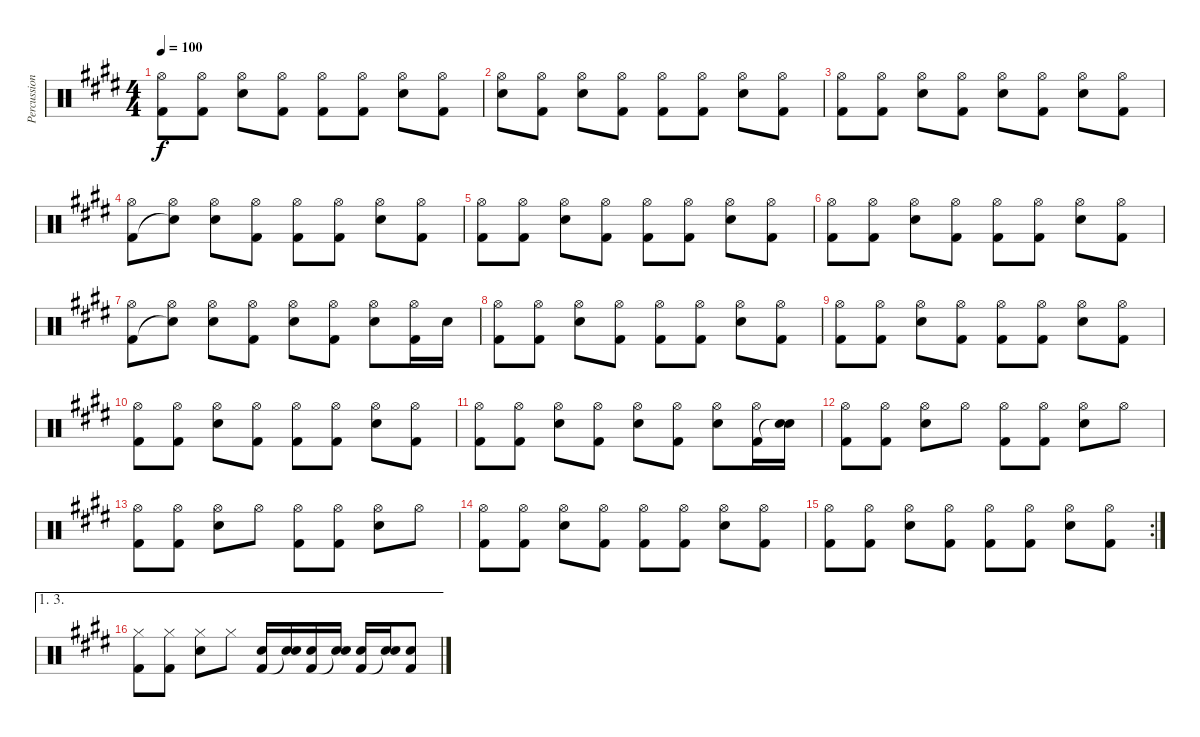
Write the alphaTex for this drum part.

\track ("Percussion" "Percussion") {instrument percussion}
\staff {score}
\articulation defaults
\ts (4 4)
\tempo 100
\clef neutral
\ks e
("Hi-Hat (open)" "Kick (hit) 2").8{dy f} ("Hi-Hat (open)" "Kick (hit) 2").8 ("Hi-Hat (open)" "Snare (hit) 2").8 ("Hi-Hat (open)" "Kick (hit) 2").8 ("Hi-Hat (open)" "Kick (hit) 2").8 ("Hi-Hat (open)" "Kick (hit) 2").8 ("Hi-Hat (open)" "Snare (hit) 2").8 ("Hi-Hat (open)" "Kick (hit) 2").8 |
("Hi-Hat (open)" "Snare (hit) 2").8 ("Hi-Hat (open)" "Kick (hit) 2").8 ("Hi-Hat (open)" "Snare (hit) 2").8 ("Hi-Hat (open)" "Kick (hit) 2").8 ("Hi-Hat (open)" "Kick (hit) 2").8 ("Hi-Hat (open)" "Kick (hit) 2").8 ("Hi-Hat (open)" "Snare (hit) 2").8 ("Hi-Hat (open)" "Kick (hit) 2").8 |
("Hi-Hat (open)" "Kick (hit) 2").8 ("Hi-Hat (open)" "Kick (hit) 2").8 ("Hi-Hat (open)" "Snare (hit) 2").8 ("Hi-Hat (open)" "Kick (hit) 2").8 ("Hi-Hat (open)" "Snare (hit) 2").8 ("Hi-Hat (open)" "Kick (hit) 2").8 ("Hi-Hat (open)" "Snare (hit) 2").8 ("Hi-Hat (open)" "Kick (hit) 2").8 |
("Hi-Hat (open)" "Kick (hit) 2").8 ("Hi-Hat (open)" "Snare (hit)"{t}).8 ("Hi-Hat (open)" "Snare (hit) 2").8 ("Hi-Hat (open)" "Kick (hit) 2").8 ("Hi-Hat (open)" "Kick (hit) 2").8 ("Hi-Hat (open)" "Kick (hit) 2").8 ("Hi-Hat (open)" "Snare (hit) 2").8 ("Hi-Hat (open)" "Kick (hit) 2").8 |
("Hi-Hat (open)" "Kick (hit) 2").8 ("Hi-Hat (open)" "Kick (hit) 2").8 ("Hi-Hat (open)" "Snare (hit) 2").8 ("Hi-Hat (open)" "Kick (hit) 2").8 ("Hi-Hat (open)" "Kick (hit) 2").8 ("Hi-Hat (open)" "Kick (hit) 2").8 ("Hi-Hat (open)" "Snare (hit) 2").8 ("Hi-Hat (open)" "Kick (hit) 2").8 |
("Hi-Hat (open)" "Kick (hit) 2").8 ("Hi-Hat (open)" "Kick (hit) 2").8 ("Hi-Hat (open)" "Snare (hit) 2").8 ("Hi-Hat (open)" "Kick (hit) 2").8 ("Hi-Hat (open)" "Kick (hit) 2").8 ("Hi-Hat (open)" "Kick (hit) 2").8 ("Hi-Hat (open)" "Snare (hit) 2").8 ("Hi-Hat (open)" "Kick (hit) 2").8 |
("Hi-Hat (open)" "Kick (hit) 2").8 ("Hi-Hat (open)" "Snare (hit)"{t}).8 ("Hi-Hat (open)" "Snare (hit) 2").8 ("Hi-Hat (open)" "Kick (hit) 2").8 ("Hi-Hat (open)" "Snare (hit) 2").8 ("Hi-Hat (open)" "Kick (hit) 2").8 ("Hi-Hat (open)" "Snare (hit) 2").8 ("Hi-Hat (open)" "Kick (hit) 2").16 "Snare (hit) 2".16 |
("Hi-Hat (open)" "Kick (hit) 2").8 ("Hi-Hat (open)" "Kick (hit) 2").8 ("Hi-Hat (open)" "Snare (hit) 2").8 ("Hi-Hat (open)" "Kick (hit) 2").8 ("Hi-Hat (open)" "Kick (hit) 2").8 ("Hi-Hat (open)" "Kick (hit) 2").8 ("Hi-Hat (open)" "Snare (hit) 2").8 ("Hi-Hat (open)" "Kick (hit) 2").8 |
("Hi-Hat (open)" "Kick (hit) 2").8 ("Hi-Hat (open)" "Kick (hit) 2").8 ("Hi-Hat (open)" "Snare (hit) 2").8 ("Hi-Hat (open)" "Kick (hit) 2").8 ("Hi-Hat (open)" "Kick (hit) 2").8 ("Hi-Hat (open)" "Kick (hit) 2").8 ("Hi-Hat (open)" "Snare (hit) 2").8 ("Hi-Hat (open)" "Kick (hit) 2").8 |
("Hi-Hat (open)" "Kick (hit) 2").8 ("Hi-Hat (open)" "Kick (hit) 2").8 ("Hi-Hat (open)" "Snare (hit) 2").8 ("Hi-Hat (open)" "Kick (hit) 2").8 ("Hi-Hat (open)" "Kick (hit) 2").8 ("Hi-Hat (open)" "Kick (hit) 2").8 ("Hi-Hat (open)" "Snare (hit) 2").8 ("Hi-Hat (open)" "Kick (hit) 2").8 |
("Hi-Hat (open)" "Kick (hit) 2").8 ("Hi-Hat (open)" "Kick (hit) 2").8 ("Hi-Hat (open)" "Snare (hit) 2").8 ("Hi-Hat (open)" "Kick (hit) 2").8 ("Hi-Hat (open)" "Snare (hit) 2").8 ("Hi-Hat (open)" "Kick (hit) 2").8 ("Hi-Hat (open)" "Snare (hit) 2").8 ("Hi-Hat (open)" "Kick (hit) 2").16 ("Snare (hit) 2" "Snare (hit)"{t}).16 |
("Hi-Hat (open)" "Kick (hit) 2").8 ("Hi-Hat (open)" "Kick (hit) 2").8 ("Hi-Hat (open)" "Snare (hit) 2").8 "Hi-Hat (open)".8 ("Hi-Hat (open)" "Kick (hit) 2").8 ("Hi-Hat (open)" "Kick (hit) 2").8 ("Hi-Hat (open)" "Snare (hit) 2").8 "Hi-Hat (open)".8 |
("Hi-Hat (open)" "Kick (hit) 2").8 ("Hi-Hat (open)" "Kick (hit) 2").8 ("Hi-Hat (open)" "Snare (hit) 2").8 "Hi-Hat (open)".8 ("Hi-Hat (open)" "Kick (hit) 2").8 ("Hi-Hat (open)" "Kick (hit) 2").8 ("Hi-Hat (open)" "Snare (hit) 2").8 "Hi-Hat (open)".8 |
("Hi-Hat (open)" "Kick (hit) 2").8 ("Hi-Hat (open)" "Kick (hit) 2").8 ("Hi-Hat (open)" "Snare (hit) 2").8 ("Hi-Hat (open)" "Kick (hit) 2").8 ("Hi-Hat (open)" "Kick (hit) 2").8 ("Hi-Hat (open)" "Kick (hit) 2").8 ("Hi-Hat (open)" "Snare (hit) 2").8 ("Hi-Hat (open)" "Kick (hit) 2").8 |
\rc 2
("Hi-Hat (open)" "Kick (hit) 2").8 ("Hi-Hat (open)" "Kick (hit) 2").8 ("Hi-Hat (open)" "Snare (hit) 2").8 ("Hi-Hat (open)" "Kick (hit) 2").8 ("Hi-Hat (open)" "Kick (hit) 2").8 ("Hi-Hat (open)" "Kick (hit) 2").8 ("Hi-Hat (open)" "Snare (hit) 2").8 ("Hi-Hat (open)" "Kick (hit) 2").8 |
\ae (1 3)
("Hi-Hat (closed)" "Kick (hit) 2").8 ("Hi-Hat (closed)" "Kick (hit) 2").8 ("Hi-Hat (closed)" "Snare (hit) 2").8 "Hi-Hat (closed)".8 ("Snare (hit) 2" "Kick (hit) 2").16 ("Snare (hit) 2" "Snare (hit)"{t}).16 ("Snare (hit) 2" "Kick (hit) 2").16 ("Snare (hit) 2" "Snare (hit)"{t}).16 ("Snare (hit) 2" "Kick (hit) 2").16 ("Snare (hit) 2" "Snare (hit)"{t}).16 ("Snare (hit) 2" "Kick (hit) 2").8
